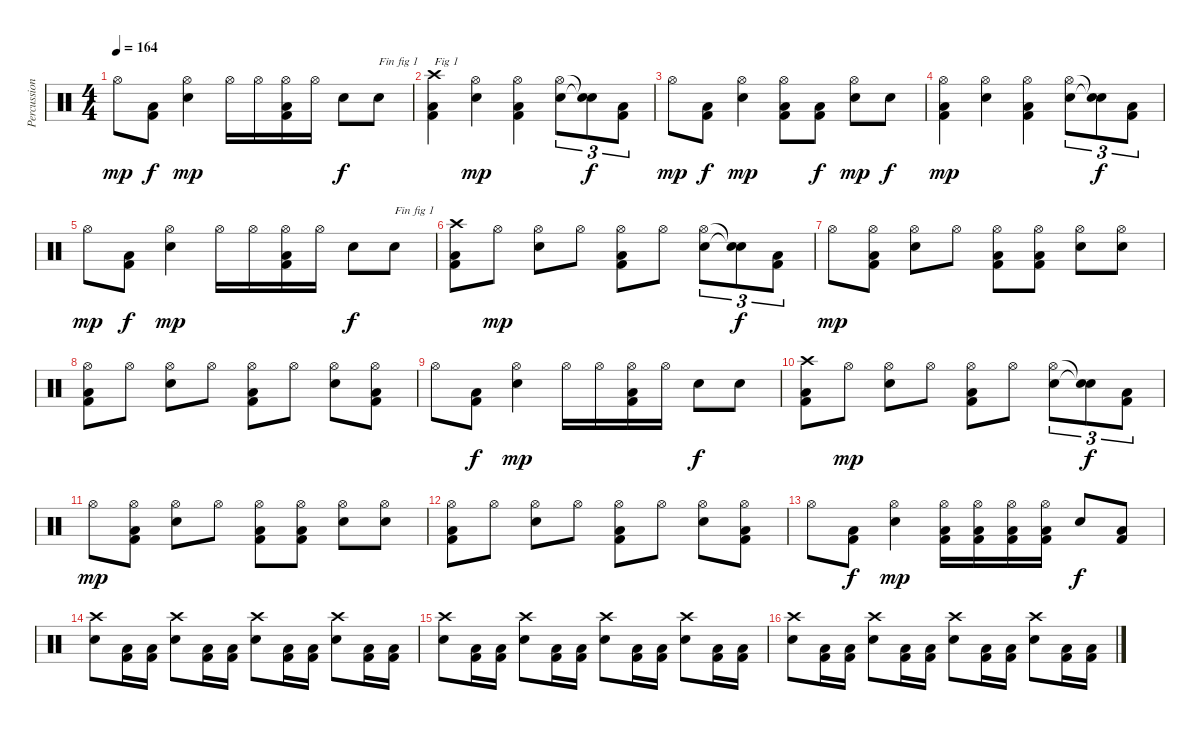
\track ("Percussions" "Percussion") {instrument percussion}
\staff {score}
\articulation defaults
\ts (4 4)
\tempo 164
\clef neutral
\ks c "Hi-Hat (open)".8{dy mp}
("Kick (hit) 2" "Low Floor Tom (hit)").8{dy f} ("Electric Snare (hit)" "Hi-Hat (open)").4{dy mp} "Hi-Hat (open)".16 "Hi-Hat (open)".16 ("Kick (hit) 2" "Low Floor Tom (hit)" "Hi-Hat (open)").16 "Hi-Hat (open)".16 "Electric Snare (hit)".8{dy f} "Electric Snare (hit)".8{txt "Fin fig 1"} |
("Kick (hit) 2" "Low Floor Tom (hit)" "Crash high (hit)").4{txt "Fig 1"} ("Electric Snare (hit)" "Hi-Hat (open)").4{dy mp} ("Kick (hit) 2" "Low Floor Tom (hit)" "Hi-Hat (open)").4 ("Electric Snare (hit)" "Hi-Hat (open)").8{tu (3 2)} ("Snare (hit)"{t} "Snare (hit)"{t}).8{tu (3 2) dy f} ("Kick (hit) 2" "Low Floor Tom (hit)").8{tu (3 2)} |
"Hi-Hat (open)".8{dy mp} ("Kick (hit) 2" "Low Floor Tom (hit)").8{dy f} ("Electric Snare (hit)" "Hi-Hat (open)").4{dy mp} ("Kick (hit) 2" "Low Floor Tom (hit)" "Hi-Hat (open)").8 ("Kick (hit) 2" "Low Floor Tom (hit)").8{dy f} ("Electric Snare (hit)" "Hi-Hat (open)").8{dy mp} "Electric Snare (hit)".8{dy f} |
("Kick (hit) 2" "Low Floor Tom (hit)" "Hi-Hat (open)").4{dy mp} ("Electric Snare (hit)" "Hi-Hat (open)").4 ("Kick (hit) 2" "Low Floor Tom (hit)" "Hi-Hat (open)").4 ("Electric Snare (hit)" "Hi-Hat (open)").8{tu (3 2)} ("Snare (hit)"{t} "Snare (hit)"{t}).8{tu (3 2) dy f} ("Kick (hit) 2" "Low Floor Tom (hit)").8{tu (3 2)} |
"Hi-Hat (open)".8{dy mp} ("Kick (hit) 2" "Low Floor Tom (hit)").8{dy f} ("Electric Snare (hit)" "Hi-Hat (open)").4{dy mp} "Hi-Hat (open)".16 "Hi-Hat (open)".16 ("Kick (hit) 2" "Low Floor Tom (hit)" "Hi-Hat (open)").16 "Hi-Hat (open)".16 "Electric Snare (hit)".8{dy f} "Electric Snare (hit)".8{txt "Fin fig 1"} |
("Kick (hit) 2" "Low Floor Tom (hit)" "Crash high (hit)").8 "Hi-Hat (open)".8{dy mp} ("Electric Snare (hit)" "Hi-Hat (open)").8 "Hi-Hat (open)".8 ("Kick (hit) 2" "Low Floor Tom (hit)" "Hi-Hat (open)").8 "Hi-Hat (open)".8 ("Electric Snare (hit)" "Hi-Hat (open)").8{tu (3 2)} ("Snare (hit)"{t} "Snare (hit)"{t}).8{tu (3 2) dy f} ("Kick (hit) 2" "Low Floor Tom (hit)").8{tu (3 2)} |
"Hi-Hat (open)".8{dy mp} ("Kick (hit) 2" "Low Floor Tom (hit)" "Hi-Hat (open)").8 ("Electric Snare (hit)" "Hi-Hat (open)").8 "Hi-Hat (open)".8 ("Kick (hit) 2" "Low Floor Tom (hit)" "Hi-Hat (open)").8 ("Kick (hit) 2" "Low Floor Tom (hit)" "Hi-Hat (open)").8 ("Electric Snare (hit)" "Hi-Hat (open)").8 ("Electric Snare (hit)" "Hi-Hat (open)").8 |
("Kick (hit) 2" "Low Floor Tom (hit)" "Hi-Hat (open)").8 "Hi-Hat (open)".8 ("Electric Snare (hit)" "Hi-Hat (open)").8 "Hi-Hat (open)".8 ("Kick (hit) 2" "Low Floor Tom (hit)" "Hi-Hat (open)").8 "Hi-Hat (open)".8 ("Electric Snare (hit)" "Hi-Hat (open)").8 ("Kick (hit) 2" "Low Floor Tom (hit)" "Hi-Hat (open)").8 |
"Hi-Hat (open)".8 ("Kick (hit) 2" "Low Floor Tom (hit)").8{dy f} ("Electric Snare (hit)" "Hi-Hat (open)").4{dy mp} "Hi-Hat (open)".16 "Hi-Hat (open)".16 ("Kick (hit) 2" "Low Floor Tom (hit)" "Hi-Hat (open)").16 "Hi-Hat (open)".16 "Electric Snare (hit)".8{dy f} "Electric Snare (hit)".8 |
("Kick (hit) 2" "Low Floor Tom (hit)" "Crash high (hit)").8 "Hi-Hat (open)".8{dy mp} ("Electric Snare (hit)" "Hi-Hat (open)").8 "Hi-Hat (open)".8 ("Kick (hit) 2" "Low Floor Tom (hit)" "Hi-Hat (open)").8 "Hi-Hat (open)".8 ("Electric Snare (hit)" "Hi-Hat (open)").8{tu (3 2)} ("Snare (hit)"{t} "Snare (hit)"{t}).8{tu (3 2) dy f} ("Kick (hit) 2" "Low Floor Tom (hit)").8{tu (3 2)} |
"Hi-Hat (open)".8{dy mp} ("Kick (hit) 2" "Low Floor Tom (hit)" "Hi-Hat (open)").8 ("Electric Snare (hit)" "Hi-Hat (open)").8 "Hi-Hat (open)".8 ("Kick (hit) 2" "Low Floor Tom (hit)" "Hi-Hat (open)").8 ("Kick (hit) 2" "Low Floor Tom (hit)" "Hi-Hat (open)").8 ("Electric Snare (hit)" "Hi-Hat (open)").8 ("Electric Snare (hit)" "Hi-Hat (open)").8 |
("Kick (hit) 2" "Low Floor Tom (hit)" "Hi-Hat (open)").8 "Hi-Hat (open)".8 ("Electric Snare (hit)" "Hi-Hat (open)").8 "Hi-Hat (open)".8 ("Kick (hit) 2" "Low Floor Tom (hit)" "Hi-Hat (open)").8 "Hi-Hat (open)".8 ("Electric Snare (hit)" "Hi-Hat (open)").8 ("Kick (hit) 2" "Low Floor Tom (hit)" "Hi-Hat (open)").8 |
"Hi-Hat (open)".8 ("Kick (hit) 2" "Low Floor Tom (hit)").8{dy f} ("Electric Snare (hit)" "Hi-Hat (open)").4{dy mp} ("Kick (hit) 2" "Low Floor Tom (hit)" "Hi-Hat (open)").16 ("Kick (hit) 2" "Low Floor Tom (hit)" "Hi-Hat (open)").16 ("Kick (hit) 2" "Low Floor Tom (hit)" "Hi-Hat (open)").16 ("Kick (hit) 2" "Low Floor Tom (hit)" "Hi-Hat (open)").16 "Electric Snare (hit)".8{dy f} ("Kick (hit) 2" "Low Floor Tom (hit)").8 |
("Electric Snare (hit)" "Crash high (hit)").8 ("Kick (hit) 2" "Low Floor Tom (hit)").16 ("Kick (hit) 2" "Low Floor Tom (hit)").16 ("Electric Snare (hit)" "Crash high (hit)").8 ("Kick (hit) 2" "Low Floor Tom (hit)").16 ("Kick (hit) 2" "Low Floor Tom (hit)").16 ("Electric Snare (hit)" "Crash high (hit)").8 ("Kick (hit) 2" "Low Floor Tom (hit)").16 ("Kick (hit) 2" "Low Floor Tom (hit)").16 ("Electric Snare (hit)" "Crash high (hit)").8 ("Kick (hit) 2" "Low Floor Tom (hit)").16 ("Kick (hit) 2" "Low Floor Tom (hit)").16 |
("Electric Snare (hit)" "Crash high (hit)").8 ("Kick (hit) 2" "Low Floor Tom (hit)").16 ("Kick (hit) 2" "Low Floor Tom (hit)").16 ("Electric Snare (hit)" "Crash high (hit)").8 ("Kick (hit) 2" "Low Floor Tom (hit)").16 ("Kick (hit) 2" "Low Floor Tom (hit)").16 ("Electric Snare (hit)" "Crash high (hit)").8 ("Kick (hit) 2" "Low Floor Tom (hit)").16 ("Kick (hit) 2" "Low Floor Tom (hit)").16 ("Electric Snare (hit)" "Crash high (hit)").8 ("Kick (hit) 2" "Low Floor Tom (hit)").16 ("Kick (hit) 2" "Low Floor Tom (hit)").16 |
("Electric Snare (hit)" "Crash high (hit)").8 ("Kick (hit) 2" "Low Floor Tom (hit)").16 ("Kick (hit) 2" "Low Floor Tom (hit)").16 ("Electric Snare (hit)" "Crash high (hit)").8 ("Kick (hit) 2" "Low Floor Tom (hit)").16 ("Kick (hit) 2" "Low Floor Tom (hit)").16 ("Electric Snare (hit)" "Crash high (hit)").8 ("Kick (hit) 2" "Low Floor Tom (hit)").16 ("Kick (hit) 2" "Low Floor Tom (hit)").16 ("Electric Snare (hit)" "Crash high (hit)").8 ("Kick (hit) 2" "Low Floor Tom (hit)").16 ("Kick (hit) 2" "Low Floor Tom (hit)").16
